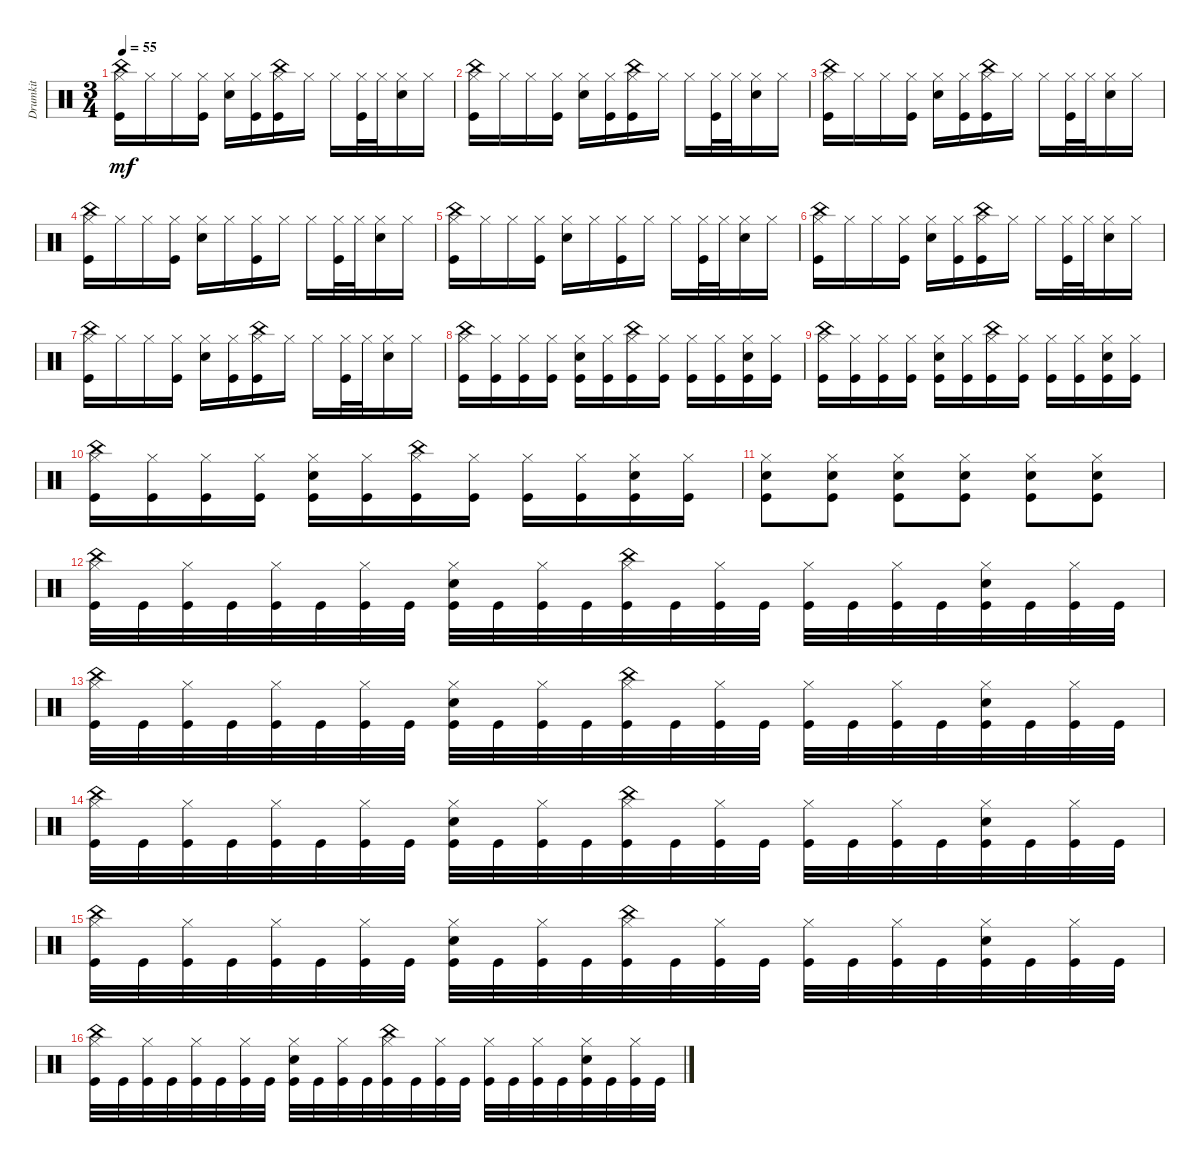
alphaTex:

\track ("Drumkit" "Drumkit") {instrument percussion}
\staff {score}
\articulation defaults
\ts (3 4)
\tempo 55
\clef neutral
\ks c
("Hi-Hat (closed)" "Kick (hit)" "China (hit)").16{dy mf} "Hi-Hat (closed)".16 "Hi-Hat (closed)".16 ("Hi-Hat (closed)" "Kick (hit)").16 ("Hi-Hat (closed)" "Snare (hit) 2").16 ("Hi-Hat (closed)" "Kick (hit)").16 ("Hi-Hat (closed)" "Kick (hit)" "China (hit)").16 "Hi-Hat (closed)".16 "Hi-Hat (closed)".16 ("Hi-Hat (closed)" "Kick (hit)").32 "Hi-Hat (closed)".32 ("Hi-Hat (closed)" "Snare (hit) 2").16 "Hi-Hat (closed)".16 |
("Hi-Hat (closed)" "Kick (hit)" "China (hit)").16 "Hi-Hat (closed)".16 "Hi-Hat (closed)".16 ("Hi-Hat (closed)" "Kick (hit)").16 ("Hi-Hat (closed)" "Snare (hit) 2").16 ("Hi-Hat (closed)" "Kick (hit)").16 ("Hi-Hat (closed)" "Kick (hit)" "China (hit)").16 "Hi-Hat (closed)".16 "Hi-Hat (closed)".16 ("Hi-Hat (closed)" "Kick (hit)").32 "Hi-Hat (closed)".32 ("Hi-Hat (closed)" "Snare (hit) 2").16 "Hi-Hat (closed)".16 |
("Hi-Hat (closed)" "Kick (hit)" "China (hit)").16 "Hi-Hat (closed)".16 "Hi-Hat (closed)".16 ("Hi-Hat (closed)" "Kick (hit)").16 ("Hi-Hat (closed)" "Snare (hit) 2").16 ("Hi-Hat (closed)" "Kick (hit)").16 ("Hi-Hat (closed)" "Kick (hit)" "China (hit)").16 "Hi-Hat (closed)".16 "Hi-Hat (closed)".16 ("Hi-Hat (closed)" "Kick (hit)").32 "Hi-Hat (closed)".32 ("Hi-Hat (closed)" "Snare (hit) 2").16 "Hi-Hat (closed)".16 |
("Hi-Hat (closed)" "Kick (hit)" "China (hit)").16 "Hi-Hat (closed)".16 "Hi-Hat (closed)".16 ("Hi-Hat (closed)" "Kick (hit)").16 ("Hi-Hat (closed)" "Snare (hit) 2").16 "Hi-Hat (closed)".16 ("Hi-Hat (closed)" "Kick (hit)").16 "Hi-Hat (closed)".16 "Hi-Hat (closed)".16 ("Hi-Hat (closed)" "Kick (hit)").32 "Hi-Hat (closed)".32 ("Hi-Hat (closed)" "Snare (hit) 2").16 "Hi-Hat (closed)".16 |
("Hi-Hat (closed)" "Kick (hit)" "China (hit)").16 "Hi-Hat (closed)".16 "Hi-Hat (closed)".16 ("Hi-Hat (closed)" "Kick (hit)").16 ("Hi-Hat (closed)" "Snare (hit) 2").16 "Hi-Hat (closed)".16 ("Hi-Hat (closed)" "Kick (hit)").16 "Hi-Hat (closed)".16 "Hi-Hat (closed)".16 ("Hi-Hat (closed)" "Kick (hit)").32 "Hi-Hat (closed)".32 ("Hi-Hat (closed)" "Snare (hit) 2").16 "Hi-Hat (closed)".16 |
("Hi-Hat (closed)" "Kick (hit)" "China (hit)").16 "Hi-Hat (closed)".16 "Hi-Hat (closed)".16 ("Hi-Hat (closed)" "Kick (hit)").16 ("Hi-Hat (closed)" "Snare (hit) 2").16 ("Hi-Hat (closed)" "Kick (hit)").16 ("Hi-Hat (closed)" "Kick (hit)" "China (hit)").16 "Hi-Hat (closed)".16 "Hi-Hat (closed)".16 ("Hi-Hat (closed)" "Kick (hit)").32 "Hi-Hat (closed)".32 ("Hi-Hat (closed)" "Snare (hit) 2").16 "Hi-Hat (closed)".16 |
("Hi-Hat (closed)" "Kick (hit)" "China (hit)").16 "Hi-Hat (closed)".16 "Hi-Hat (closed)".16 ("Hi-Hat (closed)" "Kick (hit)").16 ("Hi-Hat (closed)" "Snare (hit) 2").16 ("Hi-Hat (closed)" "Kick (hit)").16 ("Hi-Hat (closed)" "Kick (hit)" "China (hit)").16 "Hi-Hat (closed)".16 "Hi-Hat (closed)".16 ("Hi-Hat (closed)" "Kick (hit)").32 "Hi-Hat (closed)".32 ("Hi-Hat (closed)" "Snare (hit) 2").16 "Hi-Hat (closed)".16 |
("Hi-Hat (closed)" "Kick (hit)" "China (hit)").16 ("Hi-Hat (closed)" "Kick (hit)").16 ("Hi-Hat (closed)" "Kick (hit)").16 ("Hi-Hat (closed)" "Kick (hit)").16 ("Hi-Hat (closed)" "Snare (hit) 2" "Kick (hit)").16 ("Hi-Hat (closed)" "Kick (hit)").16 ("Hi-Hat (closed)" "Kick (hit)" "China (hit)").16 ("Hi-Hat (closed)" "Kick (hit)").16 ("Hi-Hat (closed)" "Kick (hit)").16 ("Hi-Hat (closed)" "Kick (hit)").16 ("Hi-Hat (closed)" "Snare (hit) 2" "Kick (hit)").16 ("Hi-Hat (closed)" "Kick (hit)").16 |
("Hi-Hat (closed)" "Kick (hit)" "China (hit)").16 ("Hi-Hat (closed)" "Kick (hit)").16 ("Hi-Hat (closed)" "Kick (hit)").16 ("Hi-Hat (closed)" "Kick (hit)").16 ("Hi-Hat (closed)" "Snare (hit) 2" "Kick (hit)").16 ("Hi-Hat (closed)" "Kick (hit)").16 ("Hi-Hat (closed)" "Kick (hit)" "China (hit)").16 ("Hi-Hat (closed)" "Kick (hit)").16 ("Hi-Hat (closed)" "Kick (hit)").16 ("Hi-Hat (closed)" "Kick (hit)").16 ("Hi-Hat (closed)" "Snare (hit) 2" "Kick (hit)").16 ("Hi-Hat (closed)" "Kick (hit)").16 |
("Hi-Hat (closed)" "Kick (hit)" "China (hit)").16 ("Hi-Hat (closed)" "Kick (hit)").16 ("Hi-Hat (closed)" "Kick (hit)").16 ("Hi-Hat (closed)" "Kick (hit)").16 ("Hi-Hat (closed)" "Snare (hit) 2" "Kick (hit)").16 ("Hi-Hat (closed)" "Kick (hit)").16 ("Hi-Hat (closed)" "Kick (hit)" "China (hit)").16 ("Hi-Hat (closed)" "Kick (hit)").16 ("Hi-Hat (closed)" "Kick (hit)").16 ("Hi-Hat (closed)" "Kick (hit)").16 ("Hi-Hat (closed)" "Snare (hit) 2" "Kick (hit)").16 ("Hi-Hat (closed)" "Kick (hit)").16 |
("Kick (hit)" "Snare (hit) 2" "Hi-Hat (closed)").8 ("Kick (hit)" "Snare (hit) 2" "Hi-Hat (closed)").8 ("Kick (hit)" "Snare (hit) 2" "Hi-Hat (closed)").8 ("Kick (hit)" "Snare (hit) 2" "Hi-Hat (closed)").8 ("Kick (hit)" "Snare (hit) 2" "Hi-Hat (closed)").8 ("Kick (hit)" "Snare (hit) 2" "Hi-Hat (closed)").8 |
("Kick (hit)" "Hi-Hat (closed)" "China (hit)").32 "Kick (hit)".32 ("Kick (hit)" "Hi-Hat (closed)").32 "Kick (hit)".32 ("Kick (hit)" "Hi-Hat (closed)").32 "Kick (hit)".32 ("Kick (hit)" "Hi-Hat (closed)").32 "Kick (hit)".32 ("Kick (hit)" "Hi-Hat (closed)" "Snare (hit) 2").32 "Kick (hit)".32 ("Kick (hit)" "Hi-Hat (closed)").32 "Kick (hit)".32 ("Kick (hit)" "Hi-Hat (closed)" "China (hit)").32 "Kick (hit)".32 ("Kick (hit)" "Hi-Hat (closed)").32 "Kick (hit)".32 ("Kick (hit)" "Hi-Hat (closed)").32 "Kick (hit)".32 ("Kick (hit)" "Hi-Hat (closed)").32 "Kick (hit)".32 ("Kick (hit)" "Hi-Hat (closed)" "Snare (hit) 2").32 "Kick (hit)".32 ("Kick (hit)" "Hi-Hat (closed)").32 "Kick (hit)".32 |
("Kick (hit)" "Hi-Hat (closed)" "China (hit)").32 "Kick (hit)".32 ("Kick (hit)" "Hi-Hat (closed)").32 "Kick (hit)".32 ("Kick (hit)" "Hi-Hat (closed)").32 "Kick (hit)".32 ("Kick (hit)" "Hi-Hat (closed)").32 "Kick (hit)".32 ("Kick (hit)" "Hi-Hat (closed)" "Snare (hit) 2").32 "Kick (hit)".32 ("Kick (hit)" "Hi-Hat (closed)").32 "Kick (hit)".32 ("Kick (hit)" "Hi-Hat (closed)" "China (hit)").32 "Kick (hit)".32 ("Kick (hit)" "Hi-Hat (closed)").32 "Kick (hit)".32 ("Kick (hit)" "Hi-Hat (closed)").32 "Kick (hit)".32 ("Kick (hit)" "Hi-Hat (closed)").32 "Kick (hit)".32 ("Kick (hit)" "Hi-Hat (closed)" "Snare (hit) 2").32 "Kick (hit)".32 ("Kick (hit)" "Hi-Hat (closed)").32 "Kick (hit)".32 |
("Kick (hit)" "Hi-Hat (closed)" "China (hit)").32 "Kick (hit)".32 ("Kick (hit)" "Hi-Hat (closed)").32 "Kick (hit)".32 ("Kick (hit)" "Hi-Hat (closed)").32 "Kick (hit)".32 ("Kick (hit)" "Hi-Hat (closed)").32 "Kick (hit)".32 ("Kick (hit)" "Hi-Hat (closed)" "Snare (hit) 2").32 "Kick (hit)".32 ("Kick (hit)" "Hi-Hat (closed)").32 "Kick (hit)".32 ("Kick (hit)" "Hi-Hat (closed)" "China (hit)").32 "Kick (hit)".32 ("Kick (hit)" "Hi-Hat (closed)").32 "Kick (hit)".32 ("Kick (hit)" "Hi-Hat (closed)").32 "Kick (hit)".32 ("Kick (hit)" "Hi-Hat (closed)").32 "Kick (hit)".32 ("Kick (hit)" "Hi-Hat (closed)" "Snare (hit) 2").32 "Kick (hit)".32 ("Kick (hit)" "Hi-Hat (closed)").32 "Kick (hit)".32 |
("Kick (hit)" "Hi-Hat (closed)" "China (hit)").32 "Kick (hit)".32 ("Kick (hit)" "Hi-Hat (closed)").32 "Kick (hit)".32 ("Kick (hit)" "Hi-Hat (closed)").32 "Kick (hit)".32 ("Kick (hit)" "Hi-Hat (closed)").32 "Kick (hit)".32 ("Kick (hit)" "Hi-Hat (closed)" "Snare (hit) 2").32 "Kick (hit)".32 ("Kick (hit)" "Hi-Hat (closed)").32 "Kick (hit)".32 ("Kick (hit)" "Hi-Hat (closed)" "China (hit)").32 "Kick (hit)".32 ("Kick (hit)" "Hi-Hat (closed)").32 "Kick (hit)".32 ("Kick (hit)" "Hi-Hat (closed)").32 "Kick (hit)".32 ("Kick (hit)" "Hi-Hat (closed)").32 "Kick (hit)".32 ("Kick (hit)" "Hi-Hat (closed)" "Snare (hit) 2").32 "Kick (hit)".32 ("Kick (hit)" "Hi-Hat (closed)").32 "Kick (hit)".32 |
("Kick (hit)" "Hi-Hat (closed)" "China (hit)").32 "Kick (hit)".32 ("Kick (hit)" "Hi-Hat (closed)").32 "Kick (hit)".32 ("Kick (hit)" "Hi-Hat (closed)").32 "Kick (hit)".32 ("Kick (hit)" "Hi-Hat (closed)").32 "Kick (hit)".32 ("Kick (hit)" "Hi-Hat (closed)" "Snare (hit) 2").32 "Kick (hit)".32 ("Kick (hit)" "Hi-Hat (closed)").32 "Kick (hit)".32 ("Kick (hit)" "Hi-Hat (closed)" "China (hit)").32 "Kick (hit)".32 ("Kick (hit)" "Hi-Hat (closed)").32 "Kick (hit)".32 ("Kick (hit)" "Hi-Hat (closed)").32 "Kick (hit)".32 ("Kick (hit)" "Hi-Hat (closed)").32 "Kick (hit)".32 ("Kick (hit)" "Hi-Hat (closed)" "Snare (hit) 2").32 "Kick (hit)".32 ("Kick (hit)" "Hi-Hat (closed)").32 "Kick (hit)".32
